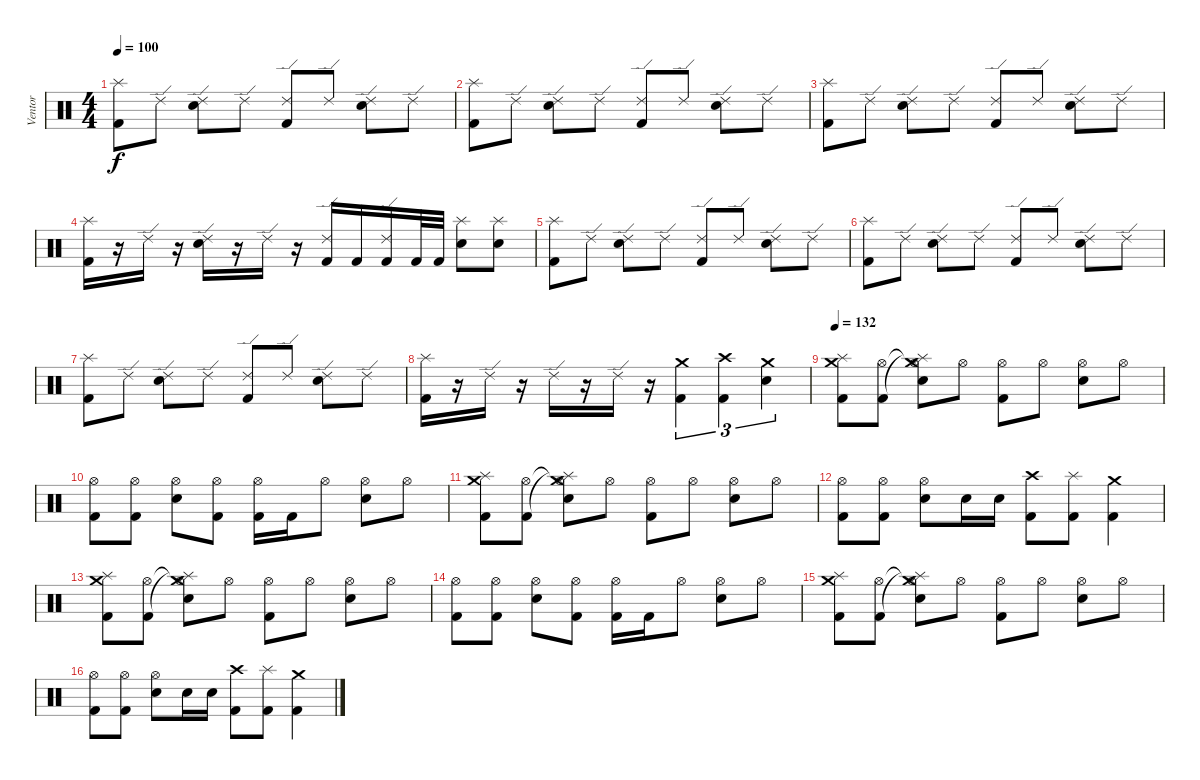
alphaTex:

\track ("Ventor" "Ventor") {instrument percussion}
\staff {score}
\articulation defaults
\ts (4 4)
\tempo 100
\clef neutral
\ks c
("Splash (hit)" "Kick (hit) 2").8{dy f} "Ride (edge) 2".8 ("Ride (edge) 2" "Snare (hit) 2").8 "Ride (edge) 2".8 ("Ride (edge) 2" "Kick (hit) 2").8 "Ride (edge) 2".8 ("Ride (edge) 2" "Snare (hit) 2").8 "Ride (edge) 2".8 |
("Splash (hit)" "Kick (hit) 2").8 "Ride (edge) 2".8 ("Ride (edge) 2" "Snare (hit) 2").8 "Ride (edge) 2".8 ("Ride (edge) 2" "Kick (hit) 2").8 "Ride (edge) 2".8 ("Ride (edge) 2" "Snare (hit) 2").8 "Ride (edge) 2".8 |
("Splash (hit)" "Kick (hit) 2").8 "Ride (edge) 2".8 ("Ride (edge) 2" "Snare (hit) 2").8 "Ride (edge) 2".8 ("Ride (edge) 2" "Kick (hit) 2").8 "Ride (edge) 2".8 ("Ride (edge) 2" "Snare (hit) 2").8 "Ride (edge) 2".8 |
("Splash (hit)" "Kick (hit) 2").16 r.16 "Ride (edge) 2".16 r.16 ("Ride (edge) 2" "Snare (hit) 2").16 r.16 "Ride (edge) 2".16 r.16 ("Ride (edge) 2" "Kick (hit) 2").16 "Kick (hit) 2".16 ("Ride (edge) 2" "Kick (hit) 2").16 "Kick (hit) 2".32 "Kick (hit) 2".32 ("Splash (hit)" "Snare (hit) 2").8 ("Splash (hit)" "Snare (hit) 2").8 |
("Splash (hit)" "Kick (hit) 2").8 "Ride (edge) 2".8 ("Ride (edge) 2" "Snare (hit) 2").8 "Ride (edge) 2".8 ("Ride (edge) 2" "Kick (hit) 2").8 "Ride (edge) 2".8 ("Ride (edge) 2" "Snare (hit) 2").8 "Ride (edge) 2".8 |
("Splash (hit)" "Kick (hit) 2").8 "Ride (edge) 2".8 ("Ride (edge) 2" "Snare (hit) 2").8 "Ride (edge) 2".8 ("Ride (edge) 2" "Kick (hit) 2").8 "Ride (edge) 2".8 ("Ride (edge) 2" "Snare (hit) 2").8 "Ride (edge) 2".8 |
("Splash (hit)" "Kick (hit) 2").8 "Ride (edge) 2".8 ("Ride (edge) 2" "Snare (hit) 2").8 "Ride (edge) 2".8 ("Ride (edge) 2" "Kick (hit) 2").8 "Ride (edge) 2".8 ("Ride (edge) 2" "Snare (hit) 2").8 "Ride (edge) 2".8 |
("Splash (hit)" "Kick (hit) 2").16 r.16 "Ride (edge) 2".16 r.16 "Ride (edge) 2".16 r.16 "Ride (edge) 2".16 r.16 ("Crash medium (hit)" "Kick (hit) 2").4{tu (3 2)} ("Crash high (hit)" "Kick (hit) 2").4{tu (3 2)} ("Crash medium (hit)" "Snare (hit) 2").4{tu (3 2)} |
\tempo 132
("Crash medium (hit)" "Splash (hit)" "Kick (hit) 2").8 ("Hi-Hat (open)" "Kick (hit) 2").8 ("Crash medium (hit)"{t} "Splash (hit)"{t} "Hi-Hat (open)" "Snare (hit) 2").8 "Hi-Hat (open)".8 ("Hi-Hat (open)" "Kick (hit) 2").8 "Hi-Hat (open)".8 ("Hi-Hat (open)" "Snare (hit) 2").8 "Hi-Hat (open)".8 |
("Hi-Hat (open)" "Kick (hit) 2").8 ("Hi-Hat (open)" "Kick (hit) 2").8 ("Hi-Hat (open)" "Snare (hit) 2").8 ("Hi-Hat (open)" "Kick (hit) 2").8 ("Hi-Hat (open)" "Kick (hit) 2").16 "Kick (hit) 2".16 "Hi-Hat (open)".8 ("Hi-Hat (open)" "Snare (hit) 2").8 "Hi-Hat (open)".8 |
("Crash medium (hit)" "Splash (hit)" "Kick (hit) 2").8 ("Hi-Hat (open)" "Kick (hit) 2").8 ("Crash medium (hit)"{t} "Splash (hit)"{t} "Hi-Hat (open)" "Snare (hit) 2").8 "Hi-Hat (open)".8 ("Hi-Hat (open)" "Kick (hit) 2").8 "Hi-Hat (open)".8 ("Hi-Hat (open)" "Snare (hit) 2").8 "Hi-Hat (open)".8 |
("Hi-Hat (open)" "Kick (hit) 2").8 ("Hi-Hat (open)" "Kick (hit) 2").8 ("Hi-Hat (open)" "Snare (hit) 2").8 "Snare (hit) 2".16 "Snare (hit) 2".16 ("Crash high (hit)" "Kick (hit) 2").8 ("Splash (hit)" "Kick (hit) 2").8 ("Crash medium (hit)" "Kick (hit) 2").4 |
("Crash medium (hit)" "Splash (hit)" "Kick (hit) 2").8 ("Hi-Hat (open)" "Kick (hit) 2").8 ("Crash medium (hit)"{t} "Splash (hit)"{t} "Hi-Hat (open)" "Snare (hit) 2").8 "Hi-Hat (open)".8 ("Hi-Hat (open)" "Kick (hit) 2").8 "Hi-Hat (open)".8 ("Hi-Hat (open)" "Snare (hit) 2").8 "Hi-Hat (open)".8 |
("Hi-Hat (open)" "Kick (hit) 2").8 ("Hi-Hat (open)" "Kick (hit) 2").8 ("Hi-Hat (open)" "Snare (hit) 2").8 ("Hi-Hat (open)" "Kick (hit) 2").8 ("Hi-Hat (open)" "Kick (hit) 2").16 "Kick (hit) 2".16 "Hi-Hat (open)".8 ("Hi-Hat (open)" "Snare (hit) 2").8 "Hi-Hat (open)".8 |
("Crash medium (hit)" "Splash (hit)" "Kick (hit) 2").8 ("Hi-Hat (open)" "Kick (hit) 2").8 ("Crash medium (hit)"{t} "Splash (hit)"{t} "Hi-Hat (open)" "Snare (hit) 2").8 "Hi-Hat (open)".8 ("Hi-Hat (open)" "Kick (hit) 2").8 "Hi-Hat (open)".8 ("Hi-Hat (open)" "Snare (hit) 2").8 "Hi-Hat (open)".8 |
("Hi-Hat (open)" "Kick (hit) 2").8 ("Hi-Hat (open)" "Kick (hit) 2").8 ("Hi-Hat (open)" "Snare (hit) 2").8 "Snare (hit) 2".16 "Snare (hit) 2".16 ("Crash high (hit)" "Kick (hit) 2").8 ("Splash (hit)" "Kick (hit) 2").8 ("Crash medium (hit)" "Kick (hit) 2").4
